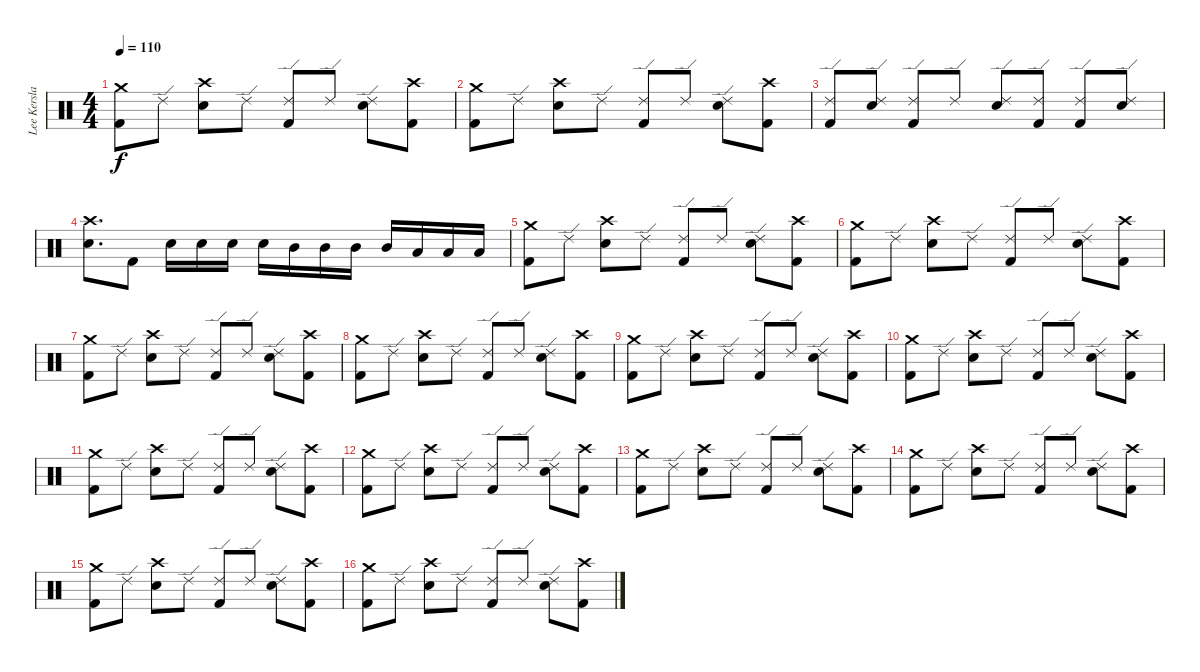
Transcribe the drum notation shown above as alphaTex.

\track ("Lee Kerslake - Drums" "Lee Kersla") {instrument percussion}
\staff {score}
\articulation defaults
\ts (4 4)
\tempo 110
\clef neutral
\ks c
("Crash medium (hit)" "Kick (hit) 2").8{dy f} "Ride (edge) 2".8 ("Crash high (hit)" "Snare (hit) 2").8 "Ride (edge) 2".8 ("Ride (edge) 2" "Kick (hit) 2").8 "Ride (edge) 2".8 ("Ride (edge) 2" "Snare (hit) 2").8 ("Crash high (hit)" "Kick (hit) 2").8 |
("Crash medium (hit)" "Kick (hit) 2").8 "Ride (edge) 2".8 ("Crash high (hit)" "Snare (hit) 2").8 "Ride (edge) 2".8 ("Ride (edge) 2" "Kick (hit) 2").8 "Ride (edge) 2".8 ("Ride (edge) 2" "Snare (hit) 2").8 ("Crash high (hit)" "Kick (hit) 2").8 |
("Ride (edge) 2" "Kick (hit) 2").8 ("Ride (edge) 2" "Snare (hit) 2").8 ("Ride (edge) 2" "Kick (hit) 2").8 "Ride (edge) 2".8 ("Ride (edge) 2" "Snare (hit) 2").8 ("Ride (edge) 2" "Kick (hit) 2").8 ("Ride (edge) 2" "Kick (hit) 2").8 ("Ride (edge) 2" "Snare (hit) 2").8 |
("Crash high (hit)" "Snare (hit) 2").8{d} "Kick (hit) 2".8 "Snare (hit) 2".16 "Snare (hit) 2".16 "Snare (hit) 2".16 "Snare (hit) 2".16 "Mid Tom (hit)".16 "Mid Tom (hit)".16 "Mid Tom (hit)".16 "Mid Tom (hit)".16 "Low Tom (hit)".16 "Low Tom (hit)".16 "Low Tom (hit)".16 |
("Crash medium (hit)" "Kick (hit) 2").8 "Ride (edge) 2".8 ("Crash high (hit)" "Snare (hit) 2").8 "Ride (edge) 2".8 ("Ride (edge) 2" "Kick (hit) 2").8 "Ride (edge) 2".8 ("Ride (edge) 2" "Snare (hit) 2").8 ("Crash high (hit)" "Kick (hit) 2").8 |
("Crash medium (hit)" "Kick (hit) 2").8 "Ride (edge) 2".8 ("Crash high (hit)" "Snare (hit) 2").8 "Ride (edge) 2".8 ("Ride (edge) 2" "Kick (hit) 2").8 "Ride (edge) 2".8 ("Ride (edge) 2" "Snare (hit) 2").8 ("Crash high (hit)" "Kick (hit) 2").8 |
("Crash medium (hit)" "Kick (hit) 2").8 "Ride (edge) 2".8 ("Crash high (hit)" "Snare (hit) 2").8 "Ride (edge) 2".8 ("Ride (edge) 2" "Kick (hit) 2").8 "Ride (edge) 2".8 ("Ride (edge) 2" "Snare (hit) 2").8 ("Crash high (hit)" "Kick (hit) 2").8 |
("Crash medium (hit)" "Kick (hit) 2").8 "Ride (edge) 2".8 ("Crash high (hit)" "Snare (hit) 2").8 "Ride (edge) 2".8 ("Ride (edge) 2" "Kick (hit) 2").8 "Ride (edge) 2".8 ("Ride (edge) 2" "Snare (hit) 2").8 ("Crash high (hit)" "Kick (hit) 2").8 |
("Crash medium (hit)" "Kick (hit) 2").8 "Ride (edge) 2".8 ("Crash high (hit)" "Snare (hit) 2").8 "Ride (edge) 2".8 ("Ride (edge) 2" "Kick (hit) 2").8 "Ride (edge) 2".8 ("Ride (edge) 2" "Snare (hit) 2").8 ("Crash high (hit)" "Kick (hit) 2").8 |
("Crash medium (hit)" "Kick (hit) 2").8 "Ride (edge) 2".8 ("Crash high (hit)" "Snare (hit) 2").8 "Ride (edge) 2".8 ("Ride (edge) 2" "Kick (hit) 2").8 "Ride (edge) 2".8 ("Ride (edge) 2" "Snare (hit) 2").8 ("Crash high (hit)" "Kick (hit) 2").8 |
("Crash medium (hit)" "Kick (hit) 2").8 "Ride (edge) 2".8 ("Crash high (hit)" "Snare (hit) 2").8 "Ride (edge) 2".8 ("Ride (edge) 2" "Kick (hit) 2").8 "Ride (edge) 2".8 ("Ride (edge) 2" "Snare (hit) 2").8 ("Crash high (hit)" "Kick (hit) 2").8 |
("Crash medium (hit)" "Kick (hit) 2").8 "Ride (edge) 2".8 ("Crash high (hit)" "Snare (hit) 2").8 "Ride (edge) 2".8 ("Ride (edge) 2" "Kick (hit) 2").8 "Ride (edge) 2".8 ("Ride (edge) 2" "Snare (hit) 2").8 ("Crash high (hit)" "Kick (hit) 2").8 |
("Crash medium (hit)" "Kick (hit) 2").8 "Ride (edge) 2".8 ("Crash high (hit)" "Snare (hit) 2").8 "Ride (edge) 2".8 ("Ride (edge) 2" "Kick (hit) 2").8 "Ride (edge) 2".8 ("Ride (edge) 2" "Snare (hit) 2").8 ("Crash high (hit)" "Kick (hit) 2").8 |
("Crash medium (hit)" "Kick (hit) 2").8 "Ride (edge) 2".8 ("Crash high (hit)" "Snare (hit) 2").8 "Ride (edge) 2".8 ("Ride (edge) 2" "Kick (hit) 2").8 "Ride (edge) 2".8 ("Ride (edge) 2" "Snare (hit) 2").8 ("Crash high (hit)" "Kick (hit) 2").8 |
("Crash medium (hit)" "Kick (hit) 2").8 "Ride (edge) 2".8 ("Crash high (hit)" "Snare (hit) 2").8 "Ride (edge) 2".8 ("Ride (edge) 2" "Kick (hit) 2").8 "Ride (edge) 2".8 ("Ride (edge) 2" "Snare (hit) 2").8 ("Crash high (hit)" "Kick (hit) 2").8 |
("Crash medium (hit)" "Kick (hit) 2").8 "Ride (edge) 2".8 ("Crash high (hit)" "Snare (hit) 2").8 "Ride (edge) 2".8 ("Ride (edge) 2" "Kick (hit) 2").8 "Ride (edge) 2".8 ("Ride (edge) 2" "Snare (hit) 2").8 ("Crash high (hit)" "Kick (hit) 2").8
